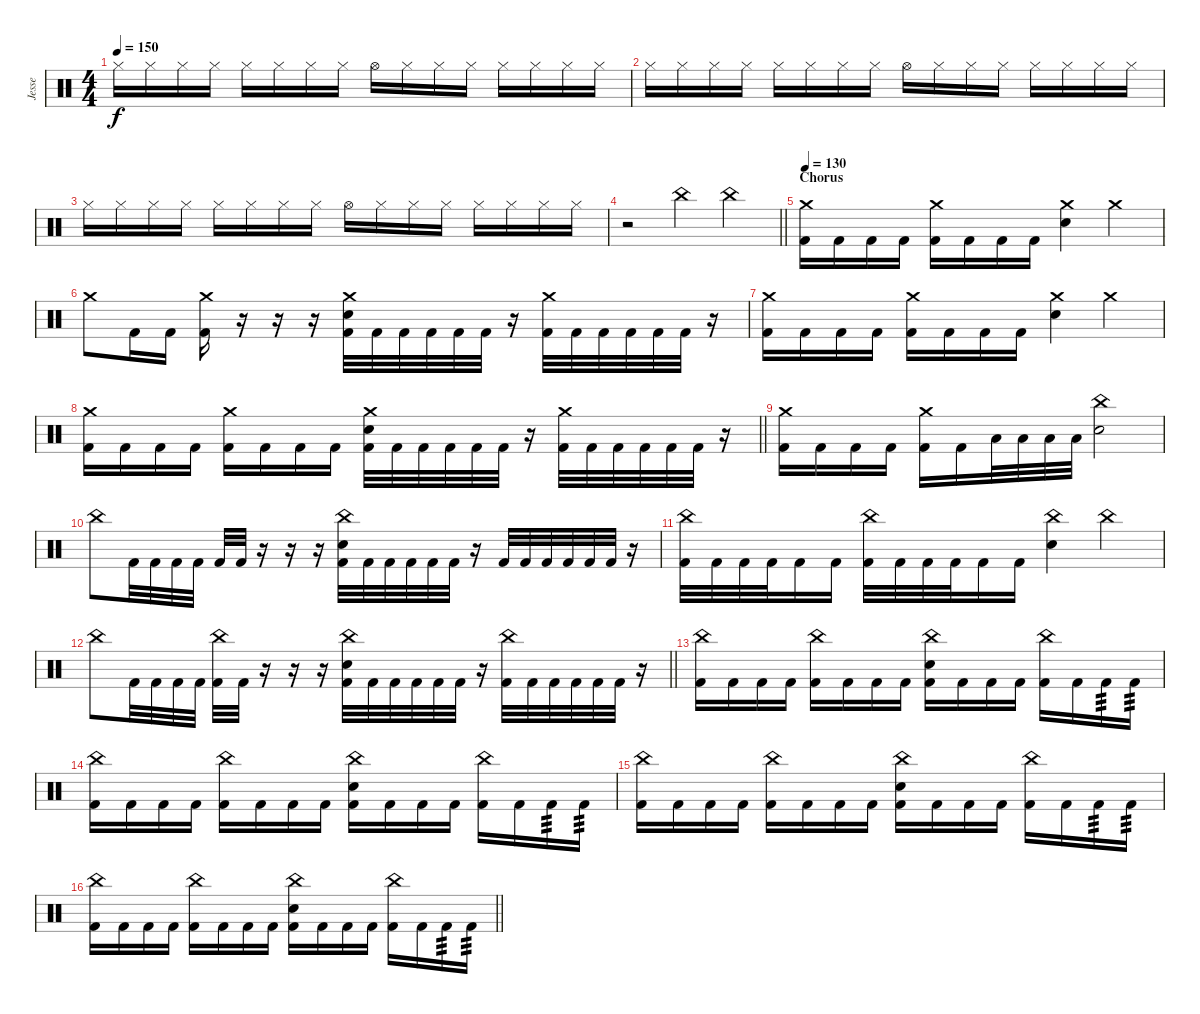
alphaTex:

\track ("Jesse" "Jesse") {instrument percussion}
\staff {score}
\articulation defaults
\ts (4 4)
\tempo 150
\clef neutral
\ks c "Hi-Hat (closed)".16{dy f} "Hi-Hat (closed)".16 "Hi-Hat (closed)".16 "Hi-Hat (closed)".16 "Hi-Hat (closed)".16 "Hi-Hat (closed)".16 "Hi-Hat (closed)".16 "Hi-Hat (closed)".16 "Hi-Hat (open)".16 "Hi-Hat (closed)".16 "Hi-Hat (closed)".16 "Hi-Hat (closed)".16 "Hi-Hat (closed)".16 "Hi-Hat (closed)".16 "Hi-Hat (closed)".16 "Hi-Hat (closed)".16
|
"Hi-Hat (closed)".16 "Hi-Hat (closed)".16 "Hi-Hat (closed)".16 "Hi-Hat (closed)".16 "Hi-Hat (closed)".16 "Hi-Hat (closed)".16 "Hi-Hat (closed)".16 "Hi-Hat (closed)".16 "Hi-Hat (open)".16 "Hi-Hat (closed)".16 "Hi-Hat (closed)".16 "Hi-Hat (closed)".16 "Hi-Hat (closed)".16 "Hi-Hat (closed)".16 "Hi-Hat (closed)".16 "Hi-Hat (closed)".16 |
"Hi-Hat (closed)".16 "Hi-Hat (closed)".16 "Hi-Hat (closed)".16 "Hi-Hat (closed)".16 "Hi-Hat (closed)".16 "Hi-Hat (closed)".16 "Hi-Hat (closed)".16 "Hi-Hat (closed)".16 "Hi-Hat (open)".16 "Hi-Hat (closed)".16 "Hi-Hat (closed)".16 "Hi-Hat (closed)".16 "Hi-Hat (closed)".16 "Hi-Hat (closed)".16 "Hi-Hat (closed)".16 "Hi-Hat (closed)".16 |
\barLineRight lightlight
r.2 "China (hit)".4 "China (hit)".4 |
\section ("" "Chorus")
\tempo 130
("Crash medium (hit)" "Kick (hit) 2").16 "Kick (hit) 2".16 "Kick (hit) 2".16 "Kick (hit) 2".16 ("Crash medium (hit)" "Kick (hit) 2").16 "Kick (hit) 2".16 "Kick (hit) 2".16 "Kick (hit) 2".16 ("Crash medium (hit)" "Electric Snare (hit)").4 "Crash medium (hit)".4 |
"Crash medium (hit)".8 "Kick (hit) 2".16 "Kick (hit) 2".16 ("Crash medium (hit)" "Kick (hit) 2").16 r.16 r.16 r.16 ("Crash medium (hit)" "Kick (hit) 2" "Electric Snare (hit)").32 "Kick (hit) 2".32 "Kick (hit) 2".32 "Kick (hit) 2".32 "Kick (hit) 2".32 "Kick (hit) 2".32 r.16 ("Crash medium (hit)" "Kick (hit) 2").32 "Kick (hit) 2".32 "Kick (hit) 2".32 "Kick (hit) 2".32 "Kick (hit) 2".32 "Kick (hit) 2".32 r.16 |
("Crash medium (hit)" "Kick (hit) 2").16 "Kick (hit) 2".16 "Kick (hit) 2".16 "Kick (hit) 2".16 ("Crash medium (hit)" "Kick (hit) 2").16 "Kick (hit) 2".16 "Kick (hit) 2".16 "Kick (hit) 2".16 ("Crash medium (hit)" "Electric Snare (hit)").4 "Crash medium (hit)".4 |
\barLineRight lightlight
("Crash medium (hit)" "Kick (hit) 2").16 "Kick (hit) 2".16 "Kick (hit) 2".16 "Kick (hit) 2".16 ("Crash medium (hit)" "Kick (hit) 2").16 "Kick (hit) 2".16 "Kick (hit) 2".16 "Kick (hit) 2".16 ("Crash medium (hit)" "Kick (hit) 2" "Electric Snare (hit)").32 "Kick (hit) 2".32 "Kick (hit) 2".32 "Kick (hit) 2".32 "Kick (hit) 2".32 "Kick (hit) 2".32 r.16 ("Crash medium (hit)" "Kick (hit) 2").32 "Kick (hit) 2".32 "Kick (hit) 2".32 "Kick (hit) 2".32 "Kick (hit) 2".32 "Kick (hit) 2".32 r.16 |
("Crash medium (hit)" "Kick (hit) 2").16 "Kick (hit) 2".16 "Kick (hit) 2".16 "Kick (hit) 2".16 ("Crash medium (hit)" "Kick (hit) 2").16 "Kick (hit) 2".16 "Low Floor Tom (hit)".32 "Low Floor Tom (hit)".32 "Low Floor Tom (hit)".32 "Low Floor Tom (hit)".32 ("China (hit)" "Electric Snare (hit)").2 |
"China (hit)".8 "Kick (hit) 2".32 "Kick (hit) 2".32 "Kick (hit) 2".32 "Kick (hit) 2".32 "Kick (hit) 2".32 "Kick (hit) 2".32 r.16 r.16 r.16 ("China (hit)" "Kick (hit) 2" "Electric Snare (hit)").32 "Kick (hit) 2".32 "Kick (hit) 2".32 "Kick (hit) 2".32 "Kick (hit) 2".32 "Kick (hit) 2".32 r.16 "Kick (hit) 2".32 "Kick (hit) 2".32 "Kick (hit) 2".32 "Kick (hit) 2".32 "Kick (hit) 2".32 "Kick (hit) 2".32 r.16 |
("China (hit)" "Kick (hit) 2").32 "Kick (hit) 2".32 "Kick (hit) 2".32 "Kick (hit) 2".32 "Kick (hit) 2".16 "Kick (hit) 2".16 ("China (hit)" "Kick (hit) 2").32 "Kick (hit) 2".32 "Kick (hit) 2".32 "Kick (hit) 2".32 "Kick (hit) 2".16 "Kick (hit) 2".16 ("China (hit)" "Electric Snare (hit)").4 "China (hit)".4 |
\barLineRight lightlight "China (hit)".8 "Kick (hit) 2".32 "Kick (hit) 2".32 "Kick (hit) 2".32 "Kick (hit) 2".32
("China (hit)" "Kick (hit) 2").32 "Kick (hit) 2".32 r.16 r.16 r.16 ("China (hit)" "Kick (hit) 2" "Electric Snare (hit)").32 "Kick (hit) 2".32 "Kick (hit) 2".32 "Kick (hit) 2".32 "Kick (hit) 2".32 "Kick (hit) 2".32 r.16 ("China (hit)" "Kick (hit) 2").32 "Kick (hit) 2".32 "Kick (hit) 2".32 "Kick (hit) 2".32 "Kick (hit) 2".32 "Kick (hit) 2".32 r.16 |
("China (hit)" "Kick (hit) 2").16 "Kick (hit) 2".16 "Kick (hit) 2".16 "Kick (hit) 2".16 ("China (hit)" "Kick (hit) 2").16 "Kick (hit) 2".16 "Kick (hit) 2".16 "Kick (hit) 2".16 ("China (hit)" "Electric Snare (hit)" "Kick (hit) 2").16 "Kick (hit) 2".16 "Kick (hit) 2".16 "Kick (hit) 2".16 ("China (hit)" "Kick (hit) 2").16 "Kick (hit) 2".16 "Kick (hit) 2".16{tp 3} "Kick (hit) 2".16{tp 3} |
("China (hit)" "Kick (hit) 2").16 "Kick (hit) 2".16 "Kick (hit) 2".16 "Kick (hit) 2".16 ("China (hit)" "Kick (hit) 2").16 "Kick (hit) 2".16 "Kick (hit) 2".16 "Kick (hit) 2".16 ("China (hit)" "Electric Snare (hit)" "Kick (hit) 2").16 "Kick (hit) 2".16 "Kick (hit) 2".16 "Kick (hit) 2".16 ("China (hit)" "Kick (hit) 2").16 "Kick (hit) 2".16 "Kick (hit) 2".16{tp 3} "Kick (hit) 2".16{tp 3} |
("China (hit)" "Kick (hit) 2").16 "Kick (hit) 2".16 "Kick (hit) 2".16 "Kick (hit) 2".16 ("China (hit)" "Kick (hit) 2").16 "Kick (hit) 2".16 "Kick (hit) 2".16 "Kick (hit) 2".16 ("China (hit)" "Electric Snare (hit)" "Kick (hit) 2").16 "Kick (hit) 2".16 "Kick (hit) 2".16 "Kick (hit) 2".16 ("China (hit)" "Kick (hit) 2").16 "Kick (hit) 2".16 "Kick (hit) 2".16{tp 3} "Kick (hit) 2".16{tp 3} |
\barLineRight lightlight
("China (hit)" "Kick (hit) 2").16 "Kick (hit) 2".16 "Kick (hit) 2".16 "Kick (hit) 2".16 ("China (hit)" "Kick (hit) 2").16 "Kick (hit) 2".16 "Kick (hit) 2".16 "Kick (hit) 2".16 ("China (hit)" "Electric Snare (hit)" "Kick (hit) 2").16 "Kick (hit) 2".16 "Kick (hit) 2".16 "Kick (hit) 2".16 ("China (hit)" "Kick (hit) 2").16 "Kick (hit) 2".16 "Kick (hit) 2".16{tp 3} "Kick (hit) 2".16{tp 3}
